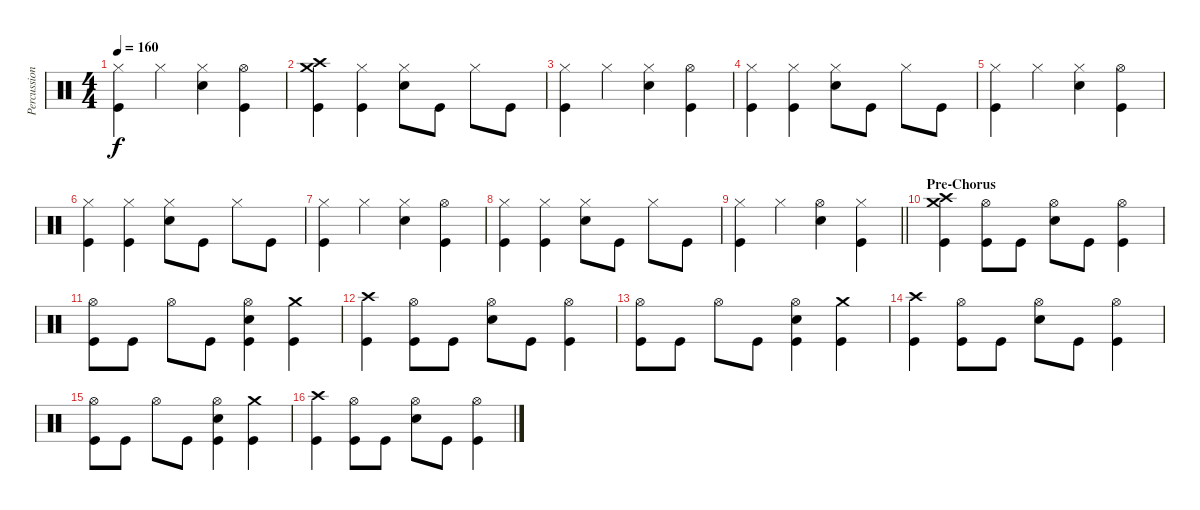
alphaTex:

\track ("Percussion" "Percussion") {instrument percussion}
\staff {score}
\articulation defaults
\ts (4 4)
\tempo 160
\clef neutral
\ks c
("Hi-Hat (closed)" "Kick (hit)").4{dy f} "Hi-Hat (closed)".4 ("Hi-Hat (closed)" "Electric Snare (hit)").4 ("Hi-Hat (open)" "Kick (hit)").4 |
("Crash high (hit)" "Crash medium (hit)" "Kick (hit)").4 ("Hi-Hat (closed)" "Kick (hit)").4 ("Hi-Hat (closed)" "Electric Snare (hit)").8 "Kick (hit)".8 "Hi-Hat (closed)".8 "Kick (hit)".8 |
("Hi-Hat (closed)" "Kick (hit)").4 "Hi-Hat (closed)".4 ("Hi-Hat (closed)" "Electric Snare (hit)").4 ("Hi-Hat (open)" "Kick (hit)").4 |
("Hi-Hat (closed)" "Kick (hit)").4 ("Hi-Hat (closed)" "Kick (hit)").4 ("Hi-Hat (closed)" "Electric Snare (hit)").8 "Kick (hit)".8 "Hi-Hat (closed)".8 "Kick (hit)".8 |
("Hi-Hat (closed)" "Kick (hit)").4 "Hi-Hat (closed)".4 ("Hi-Hat (closed)" "Electric Snare (hit)").4 ("Hi-Hat (open)" "Kick (hit)").4 |
("Hi-Hat (closed)" "Kick (hit)").4 ("Hi-Hat (closed)" "Kick (hit)").4 ("Hi-Hat (closed)" "Electric Snare (hit)").8 "Kick (hit)".8 "Hi-Hat (closed)".8 "Kick (hit)".8 |
("Hi-Hat (closed)" "Kick (hit)").4 "Hi-Hat (closed)".4 ("Hi-Hat (closed)" "Electric Snare (hit)").4 ("Hi-Hat (open)" "Kick (hit)").4 |
("Hi-Hat (closed)" "Kick (hit)").4 ("Hi-Hat (closed)" "Kick (hit)").4 ("Hi-Hat (closed)" "Electric Snare (hit)").8 "Kick (hit)".8 "Hi-Hat (closed)".8 "Kick (hit)".8 |
\barLineRight lightlight
("Hi-Hat (closed)" "Kick (hit)").4 "Hi-Hat (closed)".4 ("Hi-Hat (open)" "Electric Snare (hit)").4 ("Hi-Hat (closed)" "Kick (hit)").4 |
\section ("" "Pre-Chorus")
("Crash high (hit)" "Crash medium (hit)" "Kick (hit)").4 ("Hi-Hat (open)" "Kick (hit)").8 "Kick (hit)".8 ("Hi-Hat (open)" "Electric Snare (hit)").8 "Kick (hit)".8 ("Hi-Hat (open)" "Kick (hit)").4 |
("Hi-Hat (open)" "Kick (hit)").8 "Kick (hit)".8 "Hi-Hat (open)".8 "Kick (hit)".8 ("Hi-Hat (open)" "Electric Snare (hit)" "Kick (hit)").4 ("Crash medium (hit)" "Kick (hit)").4 |
("Crash high (hit)" "Kick (hit)").4 ("Hi-Hat (open)" "Kick (hit)").8 "Kick (hit)".8 ("Hi-Hat (open)" "Electric Snare (hit)").8 "Kick (hit)".8 ("Hi-Hat (open)" "Kick (hit)").4 |
("Hi-Hat (open)" "Kick (hit)").8 "Kick (hit)".8 "Hi-Hat (open)".8 "Kick (hit)".8 ("Hi-Hat (open)" "Electric Snare (hit)" "Kick (hit)").4 ("Crash medium (hit)" "Kick (hit)").4 |
("Crash high (hit)" "Kick (hit)").4 ("Hi-Hat (open)" "Kick (hit)").8 "Kick (hit)".8 ("Hi-Hat (open)" "Electric Snare (hit)").8 "Kick (hit)".8 ("Hi-Hat (open)" "Kick (hit)").4 |
("Hi-Hat (open)" "Kick (hit)").8 "Kick (hit)".8 "Hi-Hat (open)".8 "Kick (hit)".8 ("Hi-Hat (open)" "Electric Snare (hit)" "Kick (hit)").4 ("Crash medium (hit)" "Kick (hit)").4 |
("Crash high (hit)" "Kick (hit)").4 ("Hi-Hat (open)" "Kick (hit)").8 "Kick (hit)".8 ("Hi-Hat (open)" "Electric Snare (hit)").8 "Kick (hit)".8 ("Hi-Hat (open)" "Kick (hit)").4
